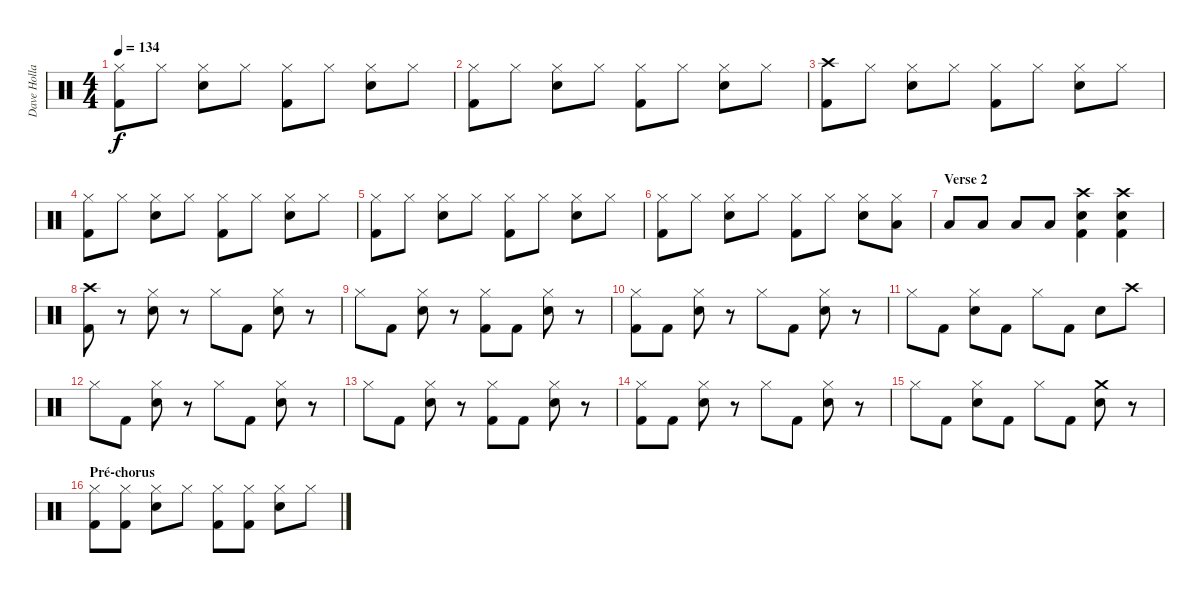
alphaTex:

\track ("Dave Holland" "Dave Holla") {instrument percussion}
\staff {score}
\articulation defaults
\ts (4 4)
\tempo 134
\clef neutral
\ks c
("Hi-Hat (closed)" "Kick (hit) 2").8{dy f} "Hi-Hat (closed)".8 ("Hi-Hat (closed)" "Snare (hit) 2").8 "Hi-Hat (closed)".8 ("Hi-Hat (closed)" "Kick (hit) 2").8 "Hi-Hat (closed)".8 ("Hi-Hat (closed)" "Snare (hit) 2").8 "Hi-Hat (closed)".8 |
("Hi-Hat (closed)" "Kick (hit) 2").8 "Hi-Hat (closed)".8 ("Hi-Hat (closed)" "Snare (hit) 2").8 "Hi-Hat (closed)".8 ("Hi-Hat (closed)" "Kick (hit) 2").8 "Hi-Hat (closed)".8 ("Hi-Hat (closed)" "Snare (hit) 2").8 "Hi-Hat (closed)".8 |
("Crash high (hit)" "Kick (hit) 2").8 "Hi-Hat (closed)".8 ("Hi-Hat (closed)" "Snare (hit) 2").8 "Hi-Hat (closed)".8 ("Hi-Hat (closed)" "Kick (hit) 2").8 "Hi-Hat (closed)".8 ("Hi-Hat (closed)" "Snare (hit) 2").8 "Hi-Hat (closed)".8 |
("Hi-Hat (closed)" "Kick (hit) 2").8 "Hi-Hat (closed)".8 ("Hi-Hat (closed)" "Snare (hit) 2").8 "Hi-Hat (closed)".8 ("Hi-Hat (closed)" "Kick (hit) 2").8 "Hi-Hat (closed)".8 ("Hi-Hat (closed)" "Snare (hit) 2").8 "Hi-Hat (closed)".8 |
("Hi-Hat (closed)" "Kick (hit) 2").8 "Hi-Hat (closed)".8 ("Hi-Hat (closed)" "Snare (hit) 2").8 "Hi-Hat (closed)".8 ("Hi-Hat (closed)" "Kick (hit) 2").8 "Hi-Hat (closed)".8 ("Hi-Hat (closed)" "Snare (hit) 2").8 "Hi-Hat (closed)".8 |
("Hi-Hat (closed)" "Kick (hit) 2").8 "Hi-Hat (closed)".8 ("Hi-Hat (closed)" "Snare (hit) 2").8 "Hi-Hat (closed)".8 ("Hi-Hat (closed)" "Kick (hit) 2").8 "Hi-Hat (closed)".8 ("Hi-Hat (closed)" "Snare (hit) 2").8 ("Hi-Hat (closed)" "Low Floor Tom (hit)").8 |
\section ("" "Verse 2")
"Low Floor Tom (hit)".8 "Low Floor Tom (hit)".8 "Low Floor Tom (hit)".8 "Low Floor Tom (hit)".8 ("Crash high (hit)" "Snare (hit) 2" "Kick (hit) 2").4 ("Crash high (hit)" "Snare (hit) 2" "Kick (hit) 2").4 |
("Crash high (hit)" "Kick (hit) 2").8 r.8 ("Hi-Hat (closed)" "Snare (hit) 2").8 r.8 "Hi-Hat (closed)".8 "Kick (hit) 2".8 ("Hi-Hat (closed)" "Snare (hit) 2").8 r.8 |
"Hi-Hat (closed)".8 "Kick (hit) 2".8 ("Hi-Hat (closed)" "Snare (hit) 2").8 r.8 ("Hi-Hat (closed)" "Kick (hit) 2").8 "Kick (hit) 2".8 ("Hi-Hat (closed)" "Snare (hit) 2").8 r.8 |
("Hi-Hat (closed)" "Kick (hit) 2").8 "Kick (hit) 2".8 ("Hi-Hat (closed)" "Snare (hit) 2").8 r.8 "Hi-Hat (closed)".8 "Kick (hit) 2".8 ("Hi-Hat (closed)" "Snare (hit) 2").8 r.8 |
"Hi-Hat (closed)".8 "Kick (hit) 2".8 ("Hi-Hat (closed)" "Snare (hit) 2").8 "Kick (hit) 2".8 "Hi-Hat (closed)".8 "Kick (hit) 2".8 "Snare (hit) 2".8 "Crash high (hit)".8 |
"Hi-Hat (closed)".8 "Kick (hit) 2".8 ("Hi-Hat (closed)" "Snare (hit) 2").8 r.8 "Hi-Hat (closed)".8 "Kick (hit) 2".8 ("Hi-Hat (closed)" "Snare (hit) 2").8 r.8 |
"Hi-Hat (closed)".8 "Kick (hit) 2".8 ("Hi-Hat (closed)" "Snare (hit) 2").8 r.8 ("Hi-Hat (closed)" "Kick (hit) 2").8 "Kick (hit) 2".8 ("Hi-Hat (closed)" "Snare (hit) 2").8 r.8 |
("Hi-Hat (closed)" "Kick (hit) 2").8 "Kick (hit) 2".8 ("Hi-Hat (closed)" "Snare (hit) 2").8 r.8 "Hi-Hat (closed)".8 "Kick (hit) 2".8 ("Hi-Hat (closed)" "Snare (hit) 2").8 r.8 |
"Hi-Hat (closed)".8 "Kick (hit) 2".8 ("Hi-Hat (closed)" "Snare (hit) 2").8 "Kick (hit) 2".8 "Hi-Hat (closed)".8 "Kick (hit) 2".8 ("Crash medium (hit)" "Snare (hit) 2").8 r.8 |
\section ("" "Pré-chorus")
("Hi-Hat (closed)" "Kick (hit) 2").8 ("Hi-Hat (closed)" "Kick (hit) 2").8 ("Hi-Hat (closed)" "Snare (hit) 2").8 "Hi-Hat (closed)".8 ("Hi-Hat (closed)" "Kick (hit) 2").8 ("Hi-Hat (closed)" "Kick (hit) 2").8 ("Hi-Hat (closed)" "Snare (hit) 2").8 "Hi-Hat (closed)".8
